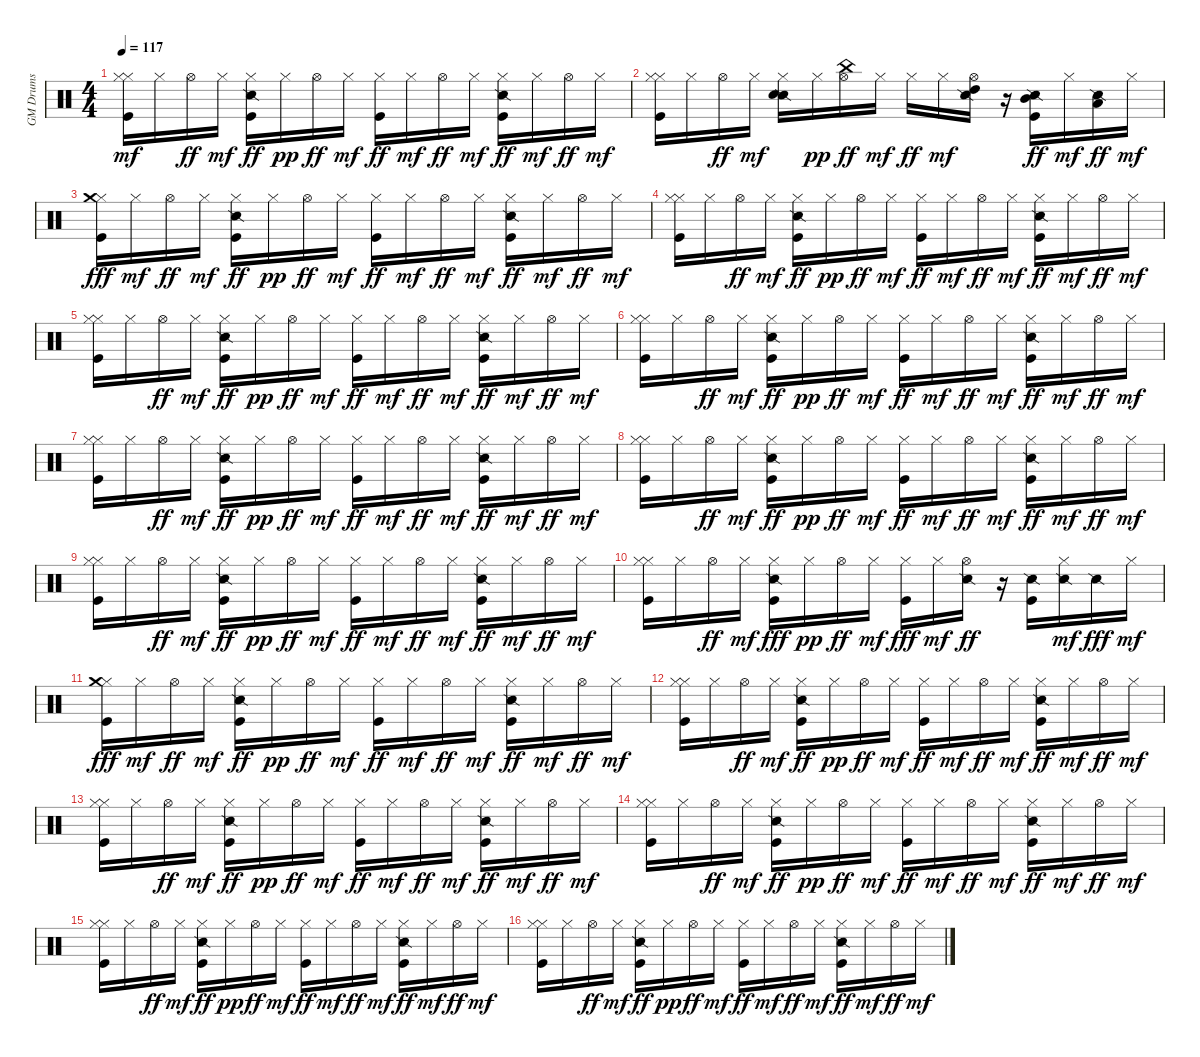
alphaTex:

\track ("GM Drums" "GM Drums") {instrument percussion}
\staff {score}
\articulation defaults
\ts (4 4)
\tempo 117
\clef neutral
\ks c
("Hi-Hat (closed)" "Kick (hit)" "Hi-Hat (closed)").16{dy mf} "Hi-Hat (closed)".16 "Hi-Hat (open)".16{dy ff} "Hi-Hat (closed)".16{dy mf} ("Kick (hit)" "Hi-Hat (closed)" "Snare (side stick) 2").16{dy ff} "Hi-Hat (closed)".16{dy pp} "Hi-Hat (open)".16{dy ff} "Hi-Hat (closed)".16{dy mf} ("Kick (hit)" "Hi-Hat (closed)").16{dy ff} "Hi-Hat (closed)".16{dy mf} "Hi-Hat (open)".16{dy ff} "Hi-Hat (closed)".16{dy mf} ("Kick (hit)" "Hi-Hat (closed)" "Snare (side stick) 2").16{dy ff} "Hi-Hat (closed)".16{dy mf} "Hi-Hat (open)".16{dy ff} "Hi-Hat (closed)".16{dy mf} |
("Hi-Hat (closed)" "Kick (hit)" "Hi-Hat (closed)").16 "Hi-Hat (closed)".16 "Hi-Hat (open)".16{dy ff} "Hi-Hat (closed)".16{dy mf} ("Hi-Hat (closed)" "Snare (side stick) 2" "Electric Snare (hit)").16 "Hi-Hat (closed)".16{dy pp} ("Hi-Hat (open)" "China (hit)").16{dy ff} "Hi-Hat (closed)".16{dy mf} "Hi-Hat (closed)".16{dy ff} "Hi-Hat (closed)".16{dy mf} ("Snare (side stick) 2" "Hi-Hat (open)" "High Tom (hit)").16 r.16 ("Kick (hit)" "Snare (side stick) 2" "Mid Tom (hit)").16{dy ff} "Hi-Hat (closed)".16{dy mf} ("Snare (side stick) 2" "Low Tom (hit)").16{dy ff} "Hi-Hat (closed)".16{dy mf} |
("Kick (hit)" "Hi-Hat (closed)" "Crash medium (hit)").16{dy fff} "Hi-Hat (closed)".16{dy mf} "Hi-Hat (open)".16{dy ff} "Hi-Hat (closed)".16{dy mf} ("Kick (hit)" "Hi-Hat (closed)" "Snare (side stick) 2").16{dy ff} "Hi-Hat (closed)".16{dy pp} "Hi-Hat (open)".16{dy ff} "Hi-Hat (closed)".16{dy mf} ("Kick (hit)" "Hi-Hat (closed)").16{dy ff} "Hi-Hat (closed)".16{dy mf} "Hi-Hat (open)".16{dy ff} "Hi-Hat (closed)".16{dy mf} ("Kick (hit)" "Hi-Hat (closed)" "Snare (side stick) 2").16{dy ff} "Hi-Hat (closed)".16{dy mf} "Hi-Hat (open)".16{dy ff} "Hi-Hat (closed)".16{dy mf} |
("Hi-Hat (closed)" "Kick (hit)" "Hi-Hat (closed)").16 "Hi-Hat (closed)".16 "Hi-Hat (open)".16{dy ff} "Hi-Hat (closed)".16{dy mf} ("Kick (hit)" "Hi-Hat (closed)" "Snare (side stick) 2").16{dy ff} "Hi-Hat (closed)".16{dy pp} "Hi-Hat (open)".16{dy ff} "Hi-Hat (closed)".16{dy mf} ("Kick (hit)" "Hi-Hat (closed)").16{dy ff} "Hi-Hat (closed)".16{dy mf} "Hi-Hat (open)".16{dy ff} "Hi-Hat (closed)".16{dy mf} ("Kick (hit)" "Hi-Hat (closed)" "Snare (side stick) 2").16{dy ff} "Hi-Hat (closed)".16{dy mf} "Hi-Hat (open)".16{dy ff} "Hi-Hat (closed)".16{dy mf} |
("Hi-Hat (closed)" "Kick (hit)" "Hi-Hat (closed)").16 "Hi-Hat (closed)".16 "Hi-Hat (open)".16{dy ff} "Hi-Hat (closed)".16{dy mf} ("Kick (hit)" "Hi-Hat (closed)" "Snare (side stick) 2").16{dy ff} "Hi-Hat (closed)".16{dy pp} "Hi-Hat (open)".16{dy ff} "Hi-Hat (closed)".16{dy mf} ("Kick (hit)" "Hi-Hat (closed)").16{dy ff} "Hi-Hat (closed)".16{dy mf} "Hi-Hat (open)".16{dy ff} "Hi-Hat (closed)".16{dy mf} ("Kick (hit)" "Hi-Hat (closed)" "Snare (side stick) 2").16{dy ff} "Hi-Hat (closed)".16{dy mf} "Hi-Hat (open)".16{dy ff} "Hi-Hat (closed)".16{dy mf} |
("Hi-Hat (closed)" "Kick (hit)" "Hi-Hat (closed)").16 "Hi-Hat (closed)".16 "Hi-Hat (open)".16{dy ff} "Hi-Hat (closed)".16{dy mf} ("Kick (hit)" "Hi-Hat (closed)" "Snare (side stick) 2").16{dy ff} "Hi-Hat (closed)".16{dy pp} "Hi-Hat (open)".16{dy ff} "Hi-Hat (closed)".16{dy mf} ("Kick (hit)" "Hi-Hat (closed)").16{dy ff} "Hi-Hat (closed)".16{dy mf} "Hi-Hat (open)".16{dy ff} "Hi-Hat (closed)".16{dy mf} ("Kick (hit)" "Hi-Hat (closed)" "Snare (side stick) 2").16{dy ff} "Hi-Hat (closed)".16{dy mf} "Hi-Hat (open)".16{dy ff} "Hi-Hat (closed)".16{dy mf} |
("Hi-Hat (closed)" "Kick (hit)" "Hi-Hat (closed)").16 "Hi-Hat (closed)".16 "Hi-Hat (open)".16{dy ff} "Hi-Hat (closed)".16{dy mf} ("Kick (hit)" "Hi-Hat (closed)" "Snare (side stick) 2").16{dy ff} "Hi-Hat (closed)".16{dy pp} "Hi-Hat (open)".16{dy ff} "Hi-Hat (closed)".16{dy mf} ("Kick (hit)" "Hi-Hat (closed)").16{dy ff} "Hi-Hat (closed)".16{dy mf} "Hi-Hat (open)".16{dy ff} "Hi-Hat (closed)".16{dy mf} ("Kick (hit)" "Hi-Hat (closed)" "Snare (side stick) 2").16{dy ff} "Hi-Hat (closed)".16{dy mf} "Hi-Hat (open)".16{dy ff} "Hi-Hat (closed)".16{dy mf} |
("Hi-Hat (closed)" "Kick (hit)" "Hi-Hat (closed)").16 "Hi-Hat (closed)".16 "Hi-Hat (open)".16{dy ff} "Hi-Hat (closed)".16{dy mf} ("Kick (hit)" "Hi-Hat (closed)" "Snare (side stick) 2").16{dy ff} "Hi-Hat (closed)".16{dy pp} "Hi-Hat (open)".16{dy ff} "Hi-Hat (closed)".16{dy mf} ("Kick (hit)" "Hi-Hat (closed)").16{dy ff} "Hi-Hat (closed)".16{dy mf} "Hi-Hat (open)".16{dy ff} "Hi-Hat (closed)".16{dy mf} ("Kick (hit)" "Hi-Hat (closed)" "Snare (side stick) 2").16{dy ff} "Hi-Hat (closed)".16{dy mf} "Hi-Hat (open)".16{dy ff} "Hi-Hat (closed)".16{dy mf} |
("Hi-Hat (closed)" "Kick (hit)" "Hi-Hat (closed)").16 "Hi-Hat (closed)".16 "Hi-Hat (open)".16{dy ff} "Hi-Hat (closed)".16{dy mf} ("Kick (hit)" "Hi-Hat (closed)" "Snare (side stick) 2").16{dy ff} "Hi-Hat (closed)".16{dy pp} "Hi-Hat (open)".16{dy ff} "Hi-Hat (closed)".16{dy mf} ("Kick (hit)" "Hi-Hat (closed)").16{dy ff} "Hi-Hat (closed)".16{dy mf} "Hi-Hat (open)".16{dy ff} "Hi-Hat (closed)".16{dy mf} ("Kick (hit)" "Hi-Hat (closed)" "Snare (side stick) 2").16{dy ff} "Hi-Hat (closed)".16{dy mf} "Hi-Hat (open)".16{dy ff} "Hi-Hat (closed)".16{dy mf} |
("Hi-Hat (closed)" "Kick (hit)" "Hi-Hat (closed)").16 "Hi-Hat (closed)".16 "Hi-Hat (open)".16{dy ff} "Hi-Hat (closed)".16{dy mf} ("Hi-Hat (closed)" "Snare (side stick) 2" "Kick (hit)").16{dy fff} "Hi-Hat (closed)".16{dy pp} "Hi-Hat (open)".16{dy ff} "Hi-Hat (closed)".16{dy mf} ("Hi-Hat (closed)" "Kick (hit)").16{dy fff} "Hi-Hat (closed)".16{dy mf} ("Snare (side stick) 2" "Hi-Hat (open)").16{dy ff} r.16 ("Kick (hit)" "Snare (side stick) 2").16 ("Hi-Hat (closed)" "Snare (side stick) 2").16{dy mf} "Snare (side stick) 2".16{dy fff} "Hi-Hat (closed)".16{dy mf} |
("Kick (hit)" "Hi-Hat (closed)" "Crash medium (hit)").16{dy fff} "Hi-Hat (closed)".16{dy mf} "Hi-Hat (open)".16{dy ff} "Hi-Hat (closed)".16{dy mf} ("Kick (hit)" "Hi-Hat (closed)" "Snare (side stick) 2").16{dy ff} "Hi-Hat (closed)".16{dy pp} "Hi-Hat (open)".16{dy ff} "Hi-Hat (closed)".16{dy mf} ("Kick (hit)" "Hi-Hat (closed)").16{dy ff} "Hi-Hat (closed)".16{dy mf} "Hi-Hat (open)".16{dy ff} "Hi-Hat (closed)".16{dy mf} ("Kick (hit)" "Hi-Hat (closed)" "Snare (side stick) 2").16{dy ff} "Hi-Hat (closed)".16{dy mf} "Hi-Hat (open)".16{dy ff} "Hi-Hat (closed)".16{dy mf} |
("Hi-Hat (closed)" "Kick (hit)" "Hi-Hat (closed)").16 "Hi-Hat (closed)".16 "Hi-Hat (open)".16{dy ff} "Hi-Hat (closed)".16{dy mf} ("Kick (hit)" "Hi-Hat (closed)" "Snare (side stick) 2").16{dy ff} "Hi-Hat (closed)".16{dy pp} "Hi-Hat (open)".16{dy ff} "Hi-Hat (closed)".16{dy mf} ("Kick (hit)" "Hi-Hat (closed)").16{dy ff} "Hi-Hat (closed)".16{dy mf} "Hi-Hat (open)".16{dy ff} "Hi-Hat (closed)".16{dy mf} ("Kick (hit)" "Hi-Hat (closed)" "Snare (side stick) 2").16{dy ff} "Hi-Hat (closed)".16{dy mf} "Hi-Hat (open)".16{dy ff} "Hi-Hat (closed)".16{dy mf} |
("Hi-Hat (closed)" "Kick (hit)" "Hi-Hat (closed)").16 "Hi-Hat (closed)".16 "Hi-Hat (open)".16{dy ff} "Hi-Hat (closed)".16{dy mf} ("Kick (hit)" "Hi-Hat (closed)" "Snare (side stick) 2").16{dy ff} "Hi-Hat (closed)".16{dy pp} "Hi-Hat (open)".16{dy ff} "Hi-Hat (closed)".16{dy mf} ("Kick (hit)" "Hi-Hat (closed)").16{dy ff} "Hi-Hat (closed)".16{dy mf} "Hi-Hat (open)".16{dy ff} "Hi-Hat (closed)".16{dy mf} ("Kick (hit)" "Hi-Hat (closed)" "Snare (side stick) 2").16{dy ff} "Hi-Hat (closed)".16{dy mf} "Hi-Hat (open)".16{dy ff} "Hi-Hat (closed)".16{dy mf} |
("Hi-Hat (closed)" "Kick (hit)" "Hi-Hat (closed)").16 "Hi-Hat (closed)".16 "Hi-Hat (open)".16{dy ff} "Hi-Hat (closed)".16{dy mf} ("Kick (hit)" "Hi-Hat (closed)" "Snare (side stick) 2").16{dy ff} "Hi-Hat (closed)".16{dy pp} "Hi-Hat (open)".16{dy ff} "Hi-Hat (closed)".16{dy mf} ("Kick (hit)" "Hi-Hat (closed)").16{dy ff} "Hi-Hat (closed)".16{dy mf} "Hi-Hat (open)".16{dy ff} "Hi-Hat (closed)".16{dy mf} ("Kick (hit)" "Hi-Hat (closed)" "Snare (side stick) 2").16{dy ff} "Hi-Hat (closed)".16{dy mf} "Hi-Hat (open)".16{dy ff} "Hi-Hat (closed)".16{dy mf} |
("Hi-Hat (closed)" "Kick (hit)" "Hi-Hat (closed)").16 "Hi-Hat (closed)".16 "Hi-Hat (open)".16{dy ff} "Hi-Hat (closed)".16{dy mf} ("Kick (hit)" "Hi-Hat (closed)" "Snare (side stick) 2").16{dy ff} "Hi-Hat (closed)".16{dy pp} "Hi-Hat (open)".16{dy ff} "Hi-Hat (closed)".16{dy mf} ("Kick (hit)" "Hi-Hat (closed)").16{dy ff} "Hi-Hat (closed)".16{dy mf} "Hi-Hat (open)".16{dy ff} "Hi-Hat (closed)".16{dy mf} ("Kick (hit)" "Hi-Hat (closed)" "Snare (side stick) 2").16{dy ff} "Hi-Hat (closed)".16{dy mf} "Hi-Hat (open)".16{dy ff} "Hi-Hat (closed)".16{dy mf} |
("Hi-Hat (closed)" "Kick (hit)" "Hi-Hat (closed)").16 "Hi-Hat (closed)".16 "Hi-Hat (open)".16{dy ff} "Hi-Hat (closed)".16{dy mf} ("Kick (hit)" "Hi-Hat (closed)" "Snare (side stick) 2").16{dy ff} "Hi-Hat (closed)".16{dy pp} "Hi-Hat (open)".16{dy ff} "Hi-Hat (closed)".16{dy mf} ("Kick (hit)" "Hi-Hat (closed)").16{dy ff} "Hi-Hat (closed)".16{dy mf} "Hi-Hat (open)".16{dy ff} "Hi-Hat (closed)".16{dy mf} ("Kick (hit)" "Hi-Hat (closed)" "Snare (side stick) 2").16{dy ff} "Hi-Hat (closed)".16{dy mf} "Hi-Hat (open)".16{dy ff} "Hi-Hat (closed)".16{dy mf}
